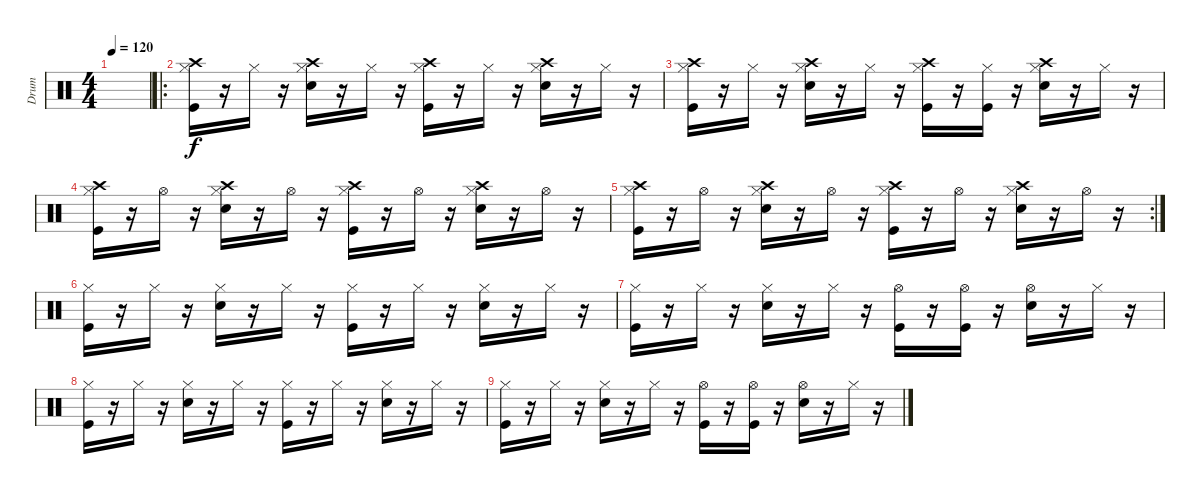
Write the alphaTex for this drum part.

\track ("Drum" "Drum") {instrument percussion}
\staff {score}
\articulation defaults
\ts (4 4)
\tempo 120
\clef neutral
\ks c
|
\ro
("Crash high (hit)" "Hi-Hat (closed)" "Kick (hit)").16 r.16 "Hi-Hat (closed)".16 r.16 ("Crash high (hit)" "Hi-Hat (closed)" "Electric Snare (hit)").16 r.16 "Hi-Hat (closed)".16 r.16 ("Crash high (hit)" "Hi-Hat (closed)" "Kick (hit)").16 r.16 "Hi-Hat (closed)".16 r.16 ("Crash high (hit)" "Hi-Hat (closed)" "Electric Snare (hit)").16 r.16 "Hi-Hat (closed)".16 r.16 |
("Crash high (hit)" "Hi-Hat (closed)" "Kick (hit)").16 r.16 "Hi-Hat (closed)".16 r.16 ("Crash high (hit)" "Hi-Hat (closed)" "Electric Snare (hit)").16 r.16 "Hi-Hat (closed)".16 r.16 ("Crash high (hit)" "Hi-Hat (closed)" "Kick (hit)").16 r.16 ("Hi-Hat (closed)" "Kick (hit)").16 r.16 ("Crash high (hit)" "Hi-Hat (closed)" "Electric Snare (hit)").16 r.16 "Hi-Hat (closed)".16 r.16 |
("Crash high (hit)" "Hi-Hat (closed)" "Kick (hit)").16 r.16 "Hi-Hat (open)".16 r.16 ("Crash high (hit)" "Hi-Hat (closed)" "Electric Snare (hit)").16 r.16 "Hi-Hat (open)".16 r.16 ("Crash high (hit)" "Hi-Hat (closed)" "Kick (hit)").16 r.16 "Hi-Hat (open)".16 r.16 ("Crash high (hit)" "Hi-Hat (closed)" "Electric Snare (hit)").16 r.16 "Hi-Hat (open)".16 r.16 |
\rc 2
("Crash high (hit)" "Hi-Hat (closed)" "Kick (hit)").16 r.16 "Hi-Hat (open)".16 r.16 ("Crash high (hit)" "Hi-Hat (closed)" "Electric Snare (hit)").16 r.16 "Hi-Hat (open)".16 r.16 ("Crash high (hit)" "Hi-Hat (closed)" "Kick (hit)").16 r.16 "Hi-Hat (open)".16 r.16 ("Crash high (hit)" "Hi-Hat (closed)" "Electric Snare (hit)").16 r.16 "Hi-Hat (open)".16 r.16 |
("Hi-Hat (closed)" "Kick (hit)").16 r.16 "Hi-Hat (closed)".16 r.16 ("Hi-Hat (closed)" "Electric Snare (hit)").16 r.16 "Hi-Hat (closed)".16 r.16 ("Hi-Hat (closed)" "Kick (hit)").16 r.16 "Hi-Hat (closed)".16 r.16 ("Hi-Hat (closed)" "Electric Snare (hit)").16 r.16 "Hi-Hat (closed)".16 r.16 |
("Hi-Hat (closed)" "Kick (hit)").16 r.16 "Hi-Hat (closed)".16 r.16 ("Hi-Hat (closed)" "Electric Snare (hit)").16 r.16 "Hi-Hat (closed)".16 r.16 ("Hi-Hat (open)" "Kick (hit)").16 r.16 ("Hi-Hat (open)" "Kick (hit)").16 r.16 ("Hi-Hat (open)" "Electric Snare (hit)").16 r.16 "Hi-Hat (closed)".16 r.16 |
("Hi-Hat (closed)" "Kick (hit)").16 r.16 "Hi-Hat (closed)".16 r.16 ("Hi-Hat (closed)" "Electric Snare (hit)").16 r.16 "Hi-Hat (closed)".16 r.16 ("Hi-Hat (closed)" "Kick (hit)").16 r.16 "Hi-Hat (closed)".16 r.16 ("Hi-Hat (closed)" "Electric Snare (hit)").16 r.16 "Hi-Hat (closed)".16 r.16 |
("Hi-Hat (closed)" "Kick (hit)").16 r.16 "Hi-Hat (closed)".16 r.16 ("Hi-Hat (closed)" "Electric Snare (hit)").16 r.16 "Hi-Hat (closed)".16 r.16 ("Hi-Hat (open)" "Kick (hit)").16 r.16 ("Hi-Hat (open)" "Kick (hit)").16 r.16 ("Hi-Hat (open)" "Electric Snare (hit)").16 r.16 "Hi-Hat (closed)".16 r.16
